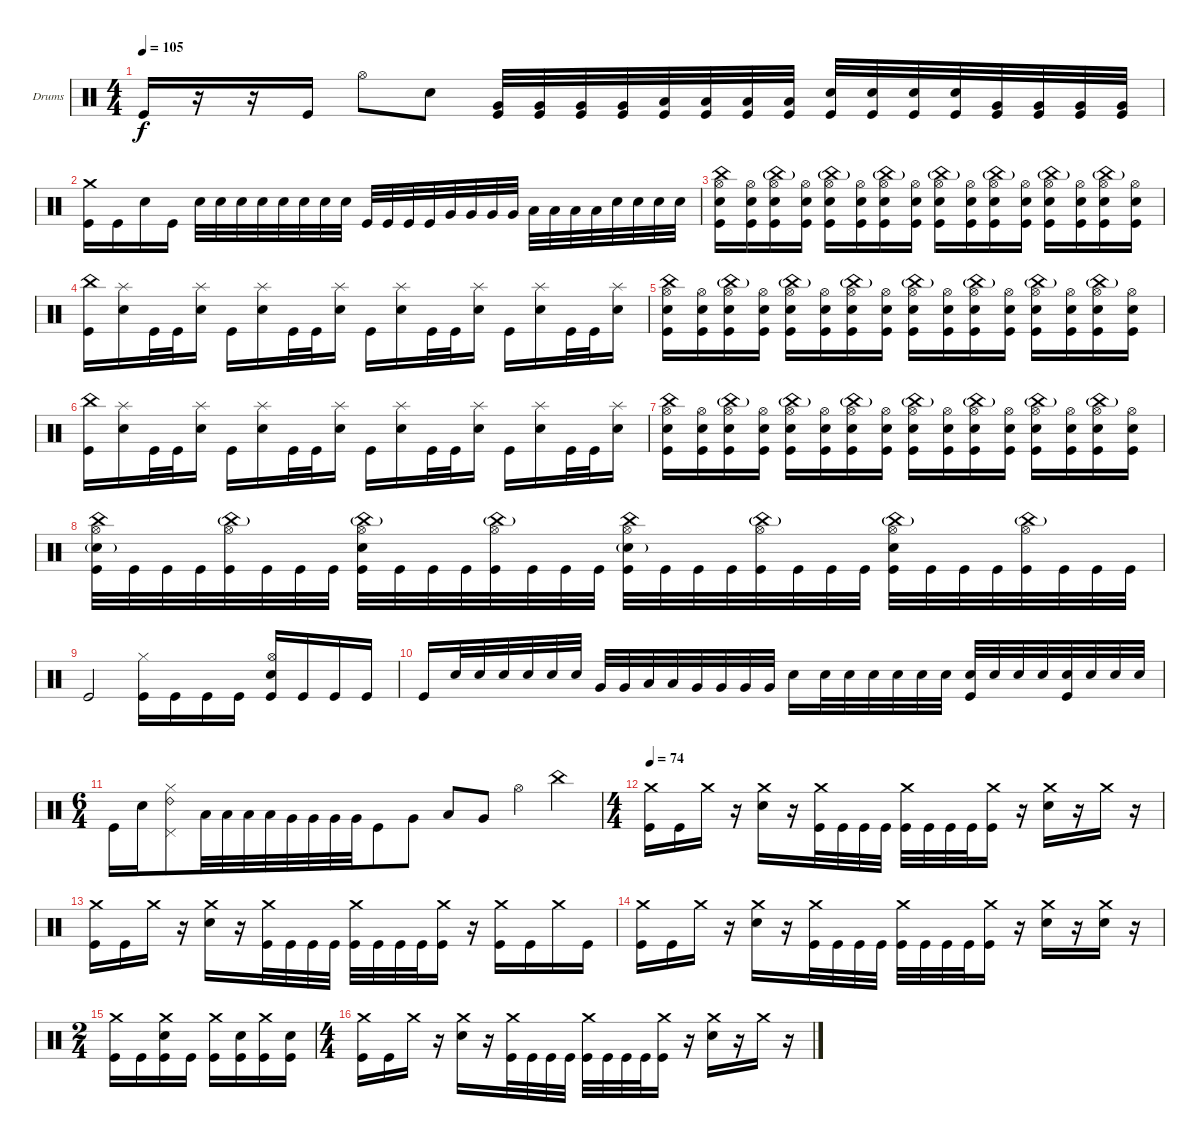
\bracketExtendMode groupsimilarinstruments
\firstSystemTrackNameOrientation horizontal
\otherSystemsTrackNameOrientation horizontal
\track ("Drumkit" "Drums") {instrument percussion}
\staff {score}
\articulation defaults
\ts (4 4)
\tempo 105
\clef neutral
\ks c "Kick (hit)".16{dy f}
r.16 r.16 "Kick (hit)".16 "Hi-Hat (open)".8 "Snare (hit) 2".8 ("Very Low Tom (hit)" "Kick (hit)").32 ("Very Low Tom (hit)" "Kick (hit)").32 ("Very Low Tom (hit)" "Kick (hit)").32 ("Very Low Tom (hit)" "Kick (hit)").32 ("Low Tom (hit)" "Kick (hit)").32 ("Low Tom (hit)" "Kick (hit)").32 ("Low Tom (hit)" "Kick (hit)").32 ("Low Tom (hit)" "Kick (hit)").32 ("Snare (hit) 2" "Kick (hit)").32 ("Snare (hit) 2" "Kick (hit)").32 ("Snare (hit) 2" "Kick (hit)").32 ("Snare (hit) 2" "Kick (hit)").32 ("Very Low Tom (hit)" "Kick (hit)").32 ("Very Low Tom (hit)" "Kick (hit)").32 ("Very Low Tom (hit)" "Kick (hit)").32 ("Very Low Tom (hit)" "Kick (hit)").32 |
("Crash medium (hit)" "Kick (hit)").16 "Kick (hit)".16 "Snare (hit) 2".16 "Kick (hit)".16 "Snare (hit) 2".32 "Snare (hit) 2".32 "Snare (hit) 2".32 "Snare (hit) 2".32 "Snare (hit) 2".32 "Snare (hit) 2".32 "Snare (hit) 2".32 "Snare (hit) 2".32 "Kick (hit)".32 "Kick (hit)".32 "Kick (hit)".32 "Kick (hit)".32 "Very Low Tom (hit)".32 "Very Low Tom (hit)".32 "Very Low Tom (hit)".32 "Very Low Tom (hit)".32 "Low Tom (hit)".32 "Low Tom (hit)".32 "Low Tom (hit)".32 "Low Tom (hit)".32 "Snare (hit) 2".32 "Snare (hit) 2".32 "Snare (hit) 2".32 "Snare (hit) 2".32 |
("China (hit)" "Hi-Hat (open)" "Snare (hit) 2" "Kick (hit)").16 ("Hi-Hat (open)" "Snare (hit) 2" "Kick (hit)").16 ("China (hit)"{g} "Hi-Hat (open)" "Snare (hit) 2" "Kick (hit)").16 ("Hi-Hat (open)" "Snare (hit) 2" "Kick (hit)").16 ("China (hit)"{g} "Hi-Hat (open)" "Snare (hit) 2" "Kick (hit)").16 ("Hi-Hat (open)" "Snare (hit) 2" "Kick (hit)").16 ("China (hit)"{g} "Hi-Hat (open)" "Snare (hit) 2" "Kick (hit)").16 ("Hi-Hat (open)" "Snare (hit) 2" "Kick (hit)").16 ("China (hit)"{g} "Hi-Hat (open)" "Snare (hit) 2" "Kick (hit)").16 ("Hi-Hat (open)" "Snare (hit) 2" "Kick (hit)").16 ("China (hit)"{g} "Hi-Hat (open)" "Snare (hit) 2" "Kick (hit)").16 ("Hi-Hat (open)" "Snare (hit) 2" "Kick (hit)").16 ("China (hit)"{g} "Hi-Hat (open)" "Snare (hit) 2" "Kick (hit)").16 ("Hi-Hat (open)" "Snare (hit) 2" "Kick (hit)").16 ("China (hit)"{g} "Hi-Hat (open)" "Snare (hit) 2" "Kick (hit)").16 ("Hi-Hat (open)" "Snare (hit) 2" "Kick (hit)").16 |
("China (hit)" "Kick (hit)").16 ("Splash (hit)" "Snare (hit) 2").16 "Kick (hit)".32 "Kick (hit)".32 ("Splash (hit)" "Snare (hit) 2").16 "Kick (hit)".16 ("Splash (hit)" "Snare (hit) 2").16 "Kick (hit)".32 "Kick (hit)".32 ("Splash (hit)" "Snare (hit) 2").16 "Kick (hit)".16 ("Splash (hit)" "Snare (hit) 2").16 "Kick (hit)".32 "Kick (hit)".32 ("Splash (hit)" "Snare (hit) 2").16 "Kick (hit)".16 ("Splash (hit)" "Snare (hit) 2").16 "Kick (hit)".32 "Kick (hit)".32 ("Splash (hit)" "Snare (hit) 2").16 |
("China (hit)" "Hi-Hat (open)" "Snare (hit) 2" "Kick (hit)").16 ("Hi-Hat (open)" "Snare (hit) 2" "Kick (hit)").16 ("China (hit)"{g} "Hi-Hat (open)" "Snare (hit) 2" "Kick (hit)").16 ("Hi-Hat (open)" "Snare (hit) 2" "Kick (hit)").16 ("China (hit)"{g} "Hi-Hat (open)" "Snare (hit) 2" "Kick (hit)").16 ("Hi-Hat (open)" "Snare (hit) 2" "Kick (hit)").16 ("China (hit)"{g} "Hi-Hat (open)" "Snare (hit) 2" "Kick (hit)").16 ("Hi-Hat (open)" "Snare (hit) 2" "Kick (hit)").16 ("China (hit)"{g} "Hi-Hat (open)" "Snare (hit) 2" "Kick (hit)").16 ("Hi-Hat (open)" "Snare (hit) 2" "Kick (hit)").16 ("China (hit)"{g} "Hi-Hat (open)" "Snare (hit) 2" "Kick (hit)").16 ("Hi-Hat (open)" "Snare (hit) 2" "Kick (hit)").16 ("China (hit)"{g} "Hi-Hat (open)" "Snare (hit) 2" "Kick (hit)").16 ("Hi-Hat (open)" "Snare (hit) 2" "Kick (hit)").16 ("China (hit)"{g} "Hi-Hat (open)" "Snare (hit) 2" "Kick (hit)").16 ("Hi-Hat (open)" "Snare (hit) 2" "Kick (hit)").16 |
("China (hit)" "Kick (hit)").16 ("Splash (hit)" "Snare (hit) 2").16 "Kick (hit)".32 "Kick (hit)".32 ("Splash (hit)" "Snare (hit) 2").16 "Kick (hit)".16 ("Splash (hit)" "Snare (hit) 2").16 "Kick (hit)".32 "Kick (hit)".32 ("Splash (hit)" "Snare (hit) 2").16 "Kick (hit)".16 ("Splash (hit)" "Snare (hit) 2").16 "Kick (hit)".32 "Kick (hit)".32 ("Splash (hit)" "Snare (hit) 2").16 "Kick (hit)".16 ("Splash (hit)" "Snare (hit) 2").16 "Kick (hit)".32 "Kick (hit)".32 ("Splash (hit)" "Snare (hit) 2").16 |
("China (hit)" "Hi-Hat (open)" "Snare (hit) 2" "Kick (hit)").16 ("Hi-Hat (open)" "Snare (hit) 2" "Kick (hit)").16 ("China (hit)"{g} "Hi-Hat (open)" "Snare (hit) 2" "Kick (hit)").16 ("Hi-Hat (open)" "Snare (hit) 2" "Kick (hit)").16 ("China (hit)"{g} "Hi-Hat (open)" "Snare (hit) 2" "Kick (hit)").16 ("Hi-Hat (open)" "Snare (hit) 2" "Kick (hit)").16 ("China (hit)"{g} "Hi-Hat (open)" "Snare (hit) 2" "Kick (hit)").16 ("Hi-Hat (open)" "Snare (hit) 2" "Kick (hit)").16 ("China (hit)"{g} "Hi-Hat (open)" "Snare (hit) 2" "Kick (hit)").16 ("Hi-Hat (open)" "Snare (hit) 2" "Kick (hit)").16 ("China (hit)"{g} "Hi-Hat (open)" "Snare (hit) 2" "Kick (hit)").16 ("Hi-Hat (open)" "Snare (hit) 2" "Kick (hit)").16 ("China (hit)"{g} "Hi-Hat (open)" "Snare (hit) 2" "Kick (hit)").16 ("Hi-Hat (open)" "Snare (hit) 2" "Kick (hit)").16 ("China (hit)"{g} "Hi-Hat (open)" "Snare (hit) 2" "Kick (hit)").16 ("Hi-Hat (open)" "Snare (hit) 2" "Kick (hit)").16 |
("China (hit)" "Hi-Hat (open)" "Snare (hit) 2"{g} "Kick (hit)").32 "Kick (hit)".32 "Kick (hit)".32 "Kick (hit)".32 ("China (hit)"{g} "Hi-Hat (open)" "Kick (hit)").32 "Kick (hit)".32 "Kick (hit)".32 "Kick (hit)".32 ("China (hit)"{g} "Hi-Hat (open)" "Snare (hit) 2" "Kick (hit)").32 "Kick (hit)".32 "Kick (hit)".32 "Kick (hit)".32 ("China (hit)"{g} "Hi-Hat (open)" "Kick (hit)").32 "Kick (hit)".32 "Kick (hit)".32 "Kick (hit)".32 ("China (hit)" "Hi-Hat (open)" "Snare (hit) 2"{g} "Kick (hit)").32 "Kick (hit)".32 "Kick (hit)".32 "Kick (hit)".32 ("China (hit)"{g} "Hi-Hat (open)" "Kick (hit)").32 "Kick (hit)".32 "Kick (hit)".32 "Kick (hit)".32 ("China (hit)"{g} "Hi-Hat (open)" "Snare (hit) 2" "Kick (hit)").32 "Kick (hit)".32 "Kick (hit)".32 "Kick (hit)".32 ("China (hit)"{g} "Hi-Hat (open)" "Kick (hit)").32 "Kick (hit)".32 "Kick (hit)".32 "Kick (hit)".32 |
"Kick (hit)".2 ("Hi-Hat (closed)" "Kick (hit)").16 "Kick (hit)".16 "Kick (hit)".16 "Kick (hit)".16 ("Hi-Hat (open)" "Snare (hit) 2" "Kick (hit)").16 "Kick (hit)".16 "Kick (hit)".16 "Kick (hit)".16 |
"Kick (hit)".16 "Snare (hit) 2".32 "Snare (hit) 2".32 "Snare (hit) 2".32 "Snare (hit) 2".32 "Snare (hit) 2".32 "Snare (hit) 2".32 "Very Low Tom (hit)".32 "Very Low Tom (hit)".32 "Low Tom (hit)".32 "Low Tom (hit)".32 "Very Low Tom (hit)".32 "Very Low Tom (hit)".32 "Very Low Tom (hit)".32 "Very Low Tom (hit)".32 "Snare (hit) 2".16 "Snare (hit) 2".32 "Snare (hit) 2".32 "Snare (hit) 2".32 "Snare (hit) 2".32 "Snare (hit) 2".32 "Snare (hit) 2".32 ("Snare (hit) 2" "Kick (hit)").32 "Snare (hit) 2".32 "Snare (hit) 2".32 "Snare (hit) 2".32 ("Snare (hit) 2" "Kick (hit)").32 "Snare (hit) 2".32 "Snare (hit) 2".32 "Snare (hit) 2".32 |
\ts (6 4)
\beaming (8 6 6)
"Kick (hit)".16 "Snare (hit) 2".16 ("Ride (bell) 2" "Hi-Hat (closed)" "Pedal Hi-Hat (hit)").8 "Low Tom (hit)".32 "Low Tom (hit)".32 "Low Tom (hit)".32 "Low Tom (hit)".32 "Very Low Tom (hit)".32 "Very Low Tom (hit)".32 "Very Low Tom (hit)".32 "Very Low Tom (hit)".32 "Kick (hit)".8 "Very Low Tom (hit)".8 "Low Tom (hit)".8 "Very Low Tom (hit)".8 "Hi-Hat (open)".4 "China (hit)".4 |
\ts (4 4)
\beaming (8 2 2 2 2)
\tempo 74
("Crash medium (hit)" "Kick (hit)").16 "Kick (hit)".16 "Crash medium (hit)".16 r.16 ("Crash medium (hit)" "Snare (hit) 2").16 r.16 ("Crash medium (hit)" "Kick (hit)").32 "Kick (hit)".32 "Kick (hit)".32 "Kick (hit)".32 ("Crash medium (hit)" "Kick (hit)").32 "Kick (hit)".32 "Kick (hit)".32 "Kick (hit)".32 ("Crash medium (hit)" "Kick (hit)").16 r.16 ("Crash medium (hit)" "Snare (hit) 2").16 r.16 "Crash medium (hit)".16 r.16 |
("Crash medium (hit)" "Kick (hit)").16 "Kick (hit)".16 "Crash medium (hit)".16 r.16 ("Crash medium (hit)" "Snare (hit) 2").16 r.16 ("Crash medium (hit)" "Kick (hit)").32 "Kick (hit)".32 "Kick (hit)".32 "Kick (hit)".32 ("Crash medium (hit)" "Kick (hit)").32 "Kick (hit)".32 "Kick (hit)".32 "Kick (hit)".32 ("Crash medium (hit)" "Kick (hit)").16 r.16 ("Crash medium (hit)" "Kick (hit)").16 "Kick (hit)".16 "Crash medium (hit)".16 "Kick (hit)".16 |
("Crash medium (hit)" "Kick (hit)").16 "Kick (hit)".16 "Crash medium (hit)".16 r.16 ("Crash medium (hit)" "Snare (hit) 2").16 r.16 ("Crash medium (hit)" "Kick (hit)").32 "Kick (hit)".32 "Kick (hit)".32 "Kick (hit)".32 ("Crash medium (hit)" "Kick (hit)").32 "Kick (hit)".32 "Kick (hit)".32 "Kick (hit)".32 ("Crash medium (hit)" "Kick (hit)").16 r.16 ("Crash medium (hit)" "Snare (hit) 2").16 r.16 ("Crash medium (hit)" "Snare (hit) 2").16 r.16 |
\ts (2 4)
\beaming (8 2 2)
("Crash medium (hit)" "Kick (hit)").16 "Kick (hit)".16 ("Crash medium (hit)" "Snare (hit) 2" "Kick (hit)").16 "Kick (hit)".16 ("Crash medium (hit)" "Kick (hit)").16 ("Snare (hit) 2" "Kick (hit)").16 ("Crash medium (hit)" "Kick (hit)").16 ("Snare (hit) 2" "Kick (hit)").16 |
\ts (4 4)
\beaming (8 2 2 2 2)
("Crash medium (hit)" "Kick (hit)").16 "Kick (hit)".16 "Crash medium (hit)".16 r.16 ("Crash medium (hit)" "Snare (hit) 2").16 r.16 ("Crash medium (hit)" "Kick (hit)").32 "Kick (hit)".32 "Kick (hit)".32 "Kick (hit)".32 ("Crash medium (hit)" "Kick (hit)").32 "Kick (hit)".32 "Kick (hit)".32 "Kick (hit)".32 ("Crash medium (hit)" "Kick (hit)").16 r.16 ("Crash medium (hit)" "Snare (hit) 2").16 r.16 "Crash medium (hit)".16 r.16
